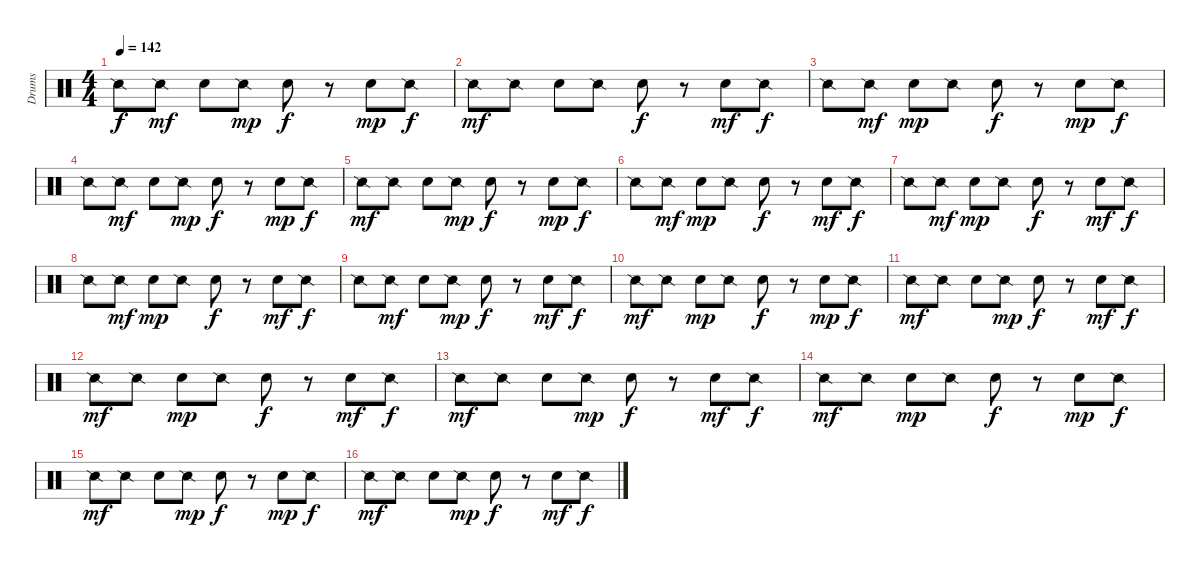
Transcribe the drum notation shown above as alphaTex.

\track ("Drums" "Drums") {instrument percussion}
\staff {score}
\articulation defaults
\ts (4 4)
\tempo 142
\clef neutral
\ks c "Snare (side stick) 2".8{dy f} "Snare (side stick) 2".8{dy mf} "Electric Snare (hit)".8 "Snare (side stick) 2".8{dy mp} "Electric Snare (hit)".8{dy f}
r.8 "Electric Snare (hit)".8{dy mp} "Snare (side stick) 2".8{dy f} |
"Snare (side stick) 2".8{dy mf} "Snare (side stick) 2".8 "Electric Snare (hit)".8 "Snare (side stick) 2".8 "Electric Snare (hit)".8{dy f} r.8 "Electric Snare (hit)".8{dy mf} "Snare (side stick) 2".8{dy f} |
"Snare (side stick) 2".8 "Snare (side stick) 2".8{dy mf} "Electric Snare (hit)".8{dy mp} "Snare (side stick) 2".8 "Electric Snare (hit)".8{dy f} r.8 "Electric Snare (hit)".8{dy mp} "Snare (side stick) 2".8{dy f} |
"Snare (side stick) 2".8 "Snare (side stick) 2".8{dy mf} "Electric Snare (hit)".8 "Snare (side stick) 2".8{dy mp} "Electric Snare (hit)".8{dy f} r.8 "Electric Snare (hit)".8{dy mp} "Snare (side stick) 2".8{dy f} |
"Snare (side stick) 2".8{dy mf} "Snare (side stick) 2".8 "Electric Snare (hit)".8 "Snare (side stick) 2".8{dy mp} "Electric Snare (hit)".8{dy f} r.8 "Electric Snare (hit)".8{dy mp} "Snare (side stick) 2".8{dy f} |
"Snare (side stick) 2".8 "Snare (side stick) 2".8{dy mf} "Electric Snare (hit)".8{dy mp} "Snare (side stick) 2".8 "Electric Snare (hit)".8{dy f} r.8 "Electric Snare (hit)".8{dy mf} "Snare (side stick) 2".8{dy f} |
"Snare (side stick) 2".8 "Snare (side stick) 2".8{dy mf} "Electric Snare (hit)".8{dy mp} "Snare (side stick) 2".8 "Electric Snare (hit)".8{dy f} r.8 "Electric Snare (hit)".8{dy mf} "Snare (side stick) 2".8{dy f} |
"Snare (side stick) 2".8 "Snare (side stick) 2".8{dy mf} "Electric Snare (hit)".8{dy mp} "Snare (side stick) 2".8 "Electric Snare (hit)".8{dy f} r.8 "Electric Snare (hit)".8{dy mf} "Snare (side stick) 2".8{dy f} |
"Snare (side stick) 2".8 "Snare (side stick) 2".8{dy mf} "Electric Snare (hit)".8 "Snare (side stick) 2".8{dy mp} "Electric Snare (hit)".8{dy f} r.8 "Electric Snare (hit)".8{dy mf} "Snare (side stick) 2".8{dy f} |
"Snare (side stick) 2".8{dy mf} "Snare (side stick) 2".8 "Electric Snare (hit)".8{dy mp} "Snare (side stick) 2".8 "Electric Snare (hit)".8{dy f} r.8 "Electric Snare (hit)".8{dy mp} "Snare (side stick) 2".8{dy f} |
"Snare (side stick) 2".8{dy mf} "Snare (side stick) 2".8 "Electric Snare (hit)".8 "Snare (side stick) 2".8{dy mp} "Electric Snare (hit)".8{dy f} r.8 "Electric Snare (hit)".8{dy mf} "Snare (side stick) 2".8{dy f} |
"Snare (side stick) 2".8{dy mf} "Snare (side stick) 2".8 "Electric Snare (hit)".8{dy mp} "Snare (side stick) 2".8 "Electric Snare (hit)".8{dy f} r.8 "Electric Snare (hit)".8{dy mf} "Snare (side stick) 2".8{dy f} |
"Snare (side stick) 2".8{dy mf} "Snare (side stick) 2".8 "Electric Snare (hit)".8 "Snare (side stick) 2".8{dy mp} "Electric Snare (hit)".8{dy f} r.8 "Electric Snare (hit)".8{dy mf} "Snare (side stick) 2".8{dy f} |
"Snare (side stick) 2".8{dy mf} "Snare (side stick) 2".8 "Electric Snare (hit)".8{dy mp} "Snare (side stick) 2".8 "Electric Snare (hit)".8{dy f} r.8 "Electric Snare (hit)".8{dy mp} "Snare (side stick) 2".8{dy f} |
"Snare (side stick) 2".8{dy mf} "Snare (side stick) 2".8 "Electric Snare (hit)".8 "Snare (side stick) 2".8{dy mp} "Electric Snare (hit)".8{dy f} r.8 "Electric Snare (hit)".8{dy mp} "Snare (side stick) 2".8{dy f} |
"Snare (side stick) 2".8{dy mf} "Snare (side stick) 2".8 "Electric Snare (hit)".8 "Snare (side stick) 2".8{dy mp} "Electric Snare (hit)".8{dy f} r.8 "Electric Snare (hit)".8{dy mf} "Snare (side stick) 2".8{dy f}
